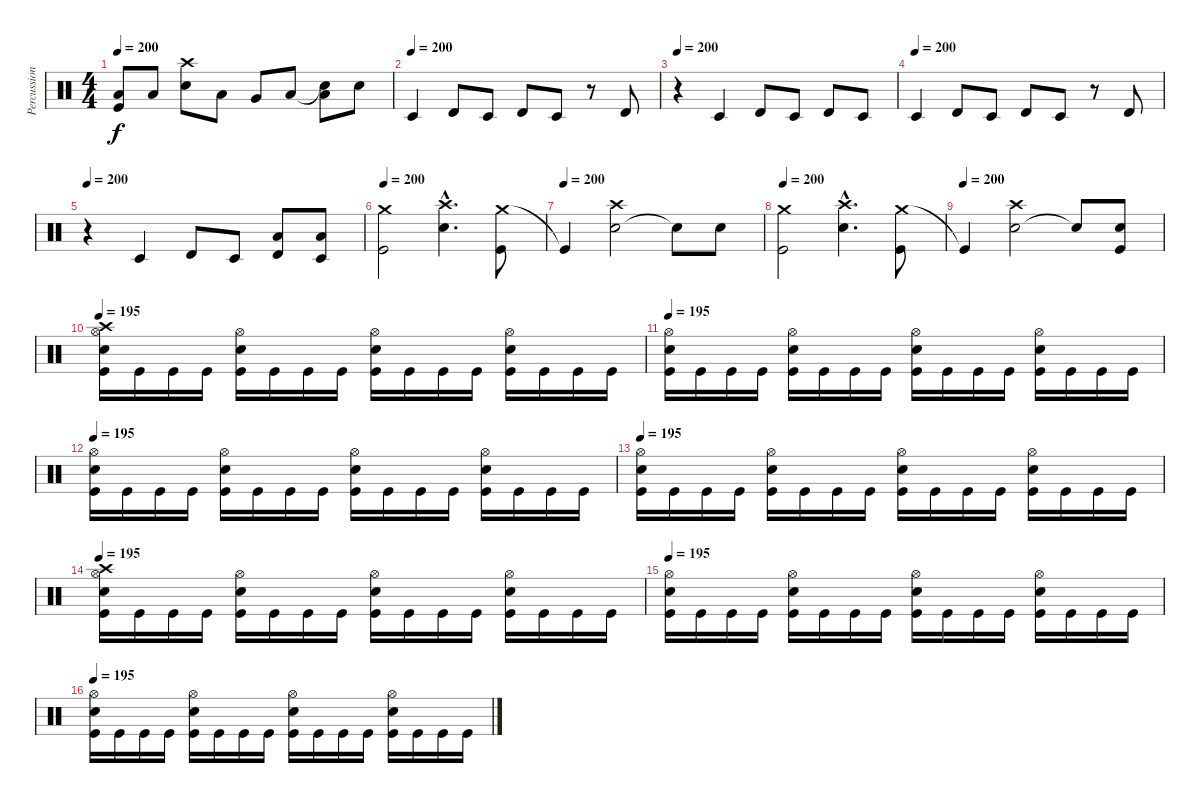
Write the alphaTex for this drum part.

\track ("Percussion" "Percussion") {instrument percussion}
\staff {score}
\articulation defaults
\ts (4 4)
\tempo 200
\clef neutral
\ks c
("Low Floor Tom (hit)" "Kick (hit)"{t}).8{dy f} "Low Floor Tom (hit)".8 ("Electric Snare (hit)" "Crash high (hit)").8 "Low Tom (hit)".8 "Very Low Tom (hit)".8 "Low Floor Tom (hit)".8 ("Snare (hit)"{t} "Low Floor Tom (hit)").8 "Electric Snare (hit)".8 |
\tempo (200)
"Timbale low (hit)".4 "Timbale high (hit)".8 "Timbale low (hit)".8 "Timbale high (hit)".8 "Timbale low (hit)".8 r.8 "Timbale high (hit)".8 |
\tempo 200
r.4 "Timbale low (hit)".4 "Timbale high (hit)".8 "Timbale low (hit)".8 "Timbale high (hit)".8 "Timbale low (hit)".8 |
\tempo (200)
"Timbale low (hit)".4 "Timbale high (hit)".8 "Timbale low (hit)".8 "Timbale high (hit)".8 "Timbale low (hit)".8 r.8 "Timbale high (hit)".8 |
\tempo 200
r.4 "Timbale low (hit)".4 "Timbale high (hit)".8 "Timbale low (hit)".8 ("Low Floor Tom (hit)" "Timbale high (hit)").8 ("Low Floor Tom (hit)" "Timbale low (hit)").8 |
\tempo 200
("Crash medium (hit)" "Kick (hit)").2 ("Crash high (hit)"{hac} "Electric Snare (hit)"{hac}).4{d} ("Crash medium (hit)" "Kick (hit)").8 |
\tempo (200)
"Kick (hit)"{t}.4 ("Electric Snare (hit)" "Crash high (hit)").2 "Snare (hit)"{t}.8 "Electric Snare (hit)".8 |
\tempo 200
("Crash medium (hit)" "Kick (hit)").2 ("Crash high (hit)"{hac} "Electric Snare (hit)"{hac}).4{d} ("Crash medium (hit)" "Kick (hit)").8 |
\tempo (200)
"Kick (hit)"{t}.4 ("Electric Snare (hit)" "Crash high (hit)").2 "Snare (hit)"{t}.8 ("Electric Snare (hit)" "Kick (hit)").8 |
\tempo 195
("Crash high (hit)" "Hi-Hat (open)" "Electric Snare (hit)" "Kick (hit)").16 "Kick (hit)".16 "Kick (hit)".16 "Kick (hit)".16 ("Hi-Hat (open)" "Electric Snare (hit)" "Kick (hit)").16 "Kick (hit)".16 "Kick (hit)".16 "Kick (hit)".16 ("Hi-Hat (open)" "Electric Snare (hit)" "Kick (hit)").16 "Kick (hit)".16 "Kick (hit)".16 "Kick (hit)".16 ("Hi-Hat (open)" "Electric Snare (hit)" "Kick (hit)").16 "Kick (hit)".16 "Kick (hit)".16 "Kick (hit)".16 |
\tempo 195
("Hi-Hat (open)" "Electric Snare (hit)" "Kick (hit)").16 "Kick (hit)".16 "Kick (hit)".16 "Kick (hit)".16 ("Hi-Hat (open)" "Electric Snare (hit)" "Kick (hit)").16 "Kick (hit)".16 "Kick (hit)".16 "Kick (hit)".16 ("Hi-Hat (open)" "Electric Snare (hit)" "Kick (hit)").16 "Kick (hit)".16 "Kick (hit)".16 "Kick (hit)".16 ("Hi-Hat (open)" "Electric Snare (hit)" "Kick (hit)").16 "Kick (hit)".16 "Kick (hit)".16 "Kick (hit)".16 |
\tempo 195
("Hi-Hat (open)" "Electric Snare (hit)" "Kick (hit)").16 "Kick (hit)".16 "Kick (hit)".16 "Kick (hit)".16 ("Hi-Hat (open)" "Electric Snare (hit)" "Kick (hit)").16 "Kick (hit)".16 "Kick (hit)".16 "Kick (hit)".16 ("Hi-Hat (open)" "Electric Snare (hit)" "Kick (hit)").16 "Kick (hit)".16 "Kick (hit)".16 "Kick (hit)".16 ("Hi-Hat (open)" "Electric Snare (hit)" "Kick (hit)").16 "Kick (hit)".16 "Kick (hit)".16 "Kick (hit)".16 |
\tempo 195
("Hi-Hat (open)" "Electric Snare (hit)" "Kick (hit)").16 "Kick (hit)".16 "Kick (hit)".16 "Kick (hit)".16 ("Hi-Hat (open)" "Electric Snare (hit)" "Kick (hit)").16 "Kick (hit)".16 "Kick (hit)".16 "Kick (hit)".16 ("Hi-Hat (open)" "Electric Snare (hit)" "Kick (hit)").16 "Kick (hit)".16 "Kick (hit)".16 "Kick (hit)".16 ("Hi-Hat (open)" "Electric Snare (hit)" "Kick (hit)").16 "Kick (hit)".16 "Kick (hit)".16 "Kick (hit)".16 |
\tempo 195
("Crash high (hit)" "Hi-Hat (open)" "Electric Snare (hit)" "Kick (hit)").16 "Kick (hit)".16 "Kick (hit)".16 "Kick (hit)".16 ("Hi-Hat (open)" "Electric Snare (hit)" "Kick (hit)").16 "Kick (hit)".16 "Kick (hit)".16 "Kick (hit)".16 ("Hi-Hat (open)" "Electric Snare (hit)" "Kick (hit)").16 "Kick (hit)".16 "Kick (hit)".16 "Kick (hit)".16 ("Hi-Hat (open)" "Electric Snare (hit)" "Kick (hit)").16 "Kick (hit)".16 "Kick (hit)".16 "Kick (hit)".16 |
\tempo 195
("Hi-Hat (open)" "Electric Snare (hit)" "Kick (hit)").16 "Kick (hit)".16 "Kick (hit)".16 "Kick (hit)".16 ("Hi-Hat (open)" "Electric Snare (hit)" "Kick (hit)").16 "Kick (hit)".16 "Kick (hit)".16 "Kick (hit)".16 ("Hi-Hat (open)" "Electric Snare (hit)" "Kick (hit)").16 "Kick (hit)".16 "Kick (hit)".16 "Kick (hit)".16 ("Hi-Hat (open)" "Electric Snare (hit)" "Kick (hit)").16 "Kick (hit)".16 "Kick (hit)".16 "Kick (hit)".16 |
\tempo 195
("Hi-Hat (open)" "Electric Snare (hit)" "Kick (hit)").16 "Kick (hit)".16 "Kick (hit)".16 "Kick (hit)".16 ("Hi-Hat (open)" "Electric Snare (hit)" "Kick (hit)").16 "Kick (hit)".16 "Kick (hit)".16 "Kick (hit)".16 ("Hi-Hat (open)" "Electric Snare (hit)" "Kick (hit)").16 "Kick (hit)".16 "Kick (hit)".16 "Kick (hit)".16 ("Hi-Hat (open)" "Electric Snare (hit)" "Kick (hit)").16 "Kick (hit)".16 "Kick (hit)".16 "Kick (hit)".16
